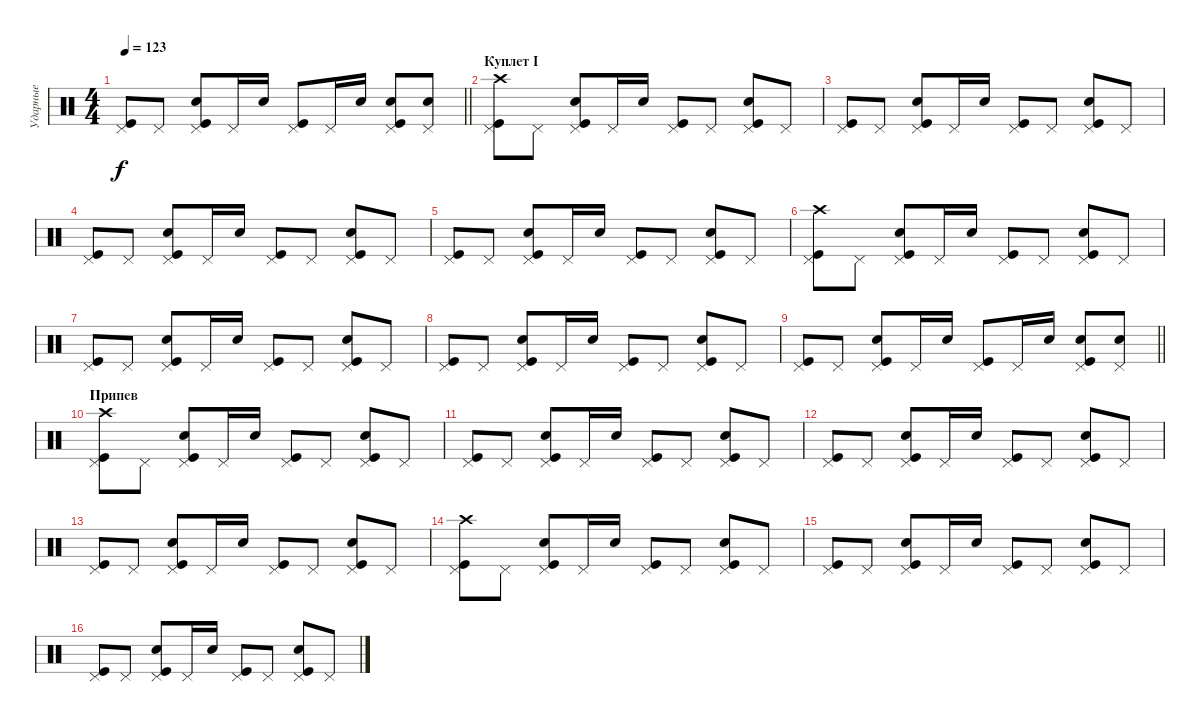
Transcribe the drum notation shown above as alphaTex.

\track ("Ударные" "Ударные") {instrument percussion}
\staff {score}
\articulation defaults
\ts (4 4)
\tempo 123
\clef neutral
\barLineRight lightlight
\ks c
("Kick (hit)" "Pedal Hi-Hat (hit)").8{dy f} "Pedal Hi-Hat (hit)".8 ("Kick (hit)" "Pedal Hi-Hat (hit)" "Snare (hit) 2").8 "Pedal Hi-Hat (hit)".16 "Snare (hit) 2".16 ("Kick (hit)" "Pedal Hi-Hat (hit)").8 "Pedal Hi-Hat (hit)".16 "Snare (hit) 2".16 ("Kick (hit)" "Pedal Hi-Hat (hit)" "Snare (hit) 2").8 ("Pedal Hi-Hat (hit)" "Snare (hit) 2").8 |
\section ("" "Куплет I")
("Kick (hit)" "Pedal Hi-Hat (hit)" "Crash high (hit)").8 "Pedal Hi-Hat (hit)".8 ("Kick (hit)" "Pedal Hi-Hat (hit)" "Snare (hit) 2").8 "Pedal Hi-Hat (hit)".16 "Snare (hit) 2".16 ("Kick (hit)" "Pedal Hi-Hat (hit)").8 "Pedal Hi-Hat (hit)".8 ("Kick (hit)" "Pedal Hi-Hat (hit)" "Snare (hit) 2").8 "Pedal Hi-Hat (hit)".8 |
("Kick (hit)" "Pedal Hi-Hat (hit)").8 "Pedal Hi-Hat (hit)".8 ("Kick (hit)" "Pedal Hi-Hat (hit)" "Snare (hit) 2").8 "Pedal Hi-Hat (hit)".16 "Snare (hit) 2".16 ("Kick (hit)" "Pedal Hi-Hat (hit)").8 "Pedal Hi-Hat (hit)".8 ("Kick (hit)" "Pedal Hi-Hat (hit)" "Snare (hit) 2").8 "Pedal Hi-Hat (hit)".8 |
("Kick (hit)" "Pedal Hi-Hat (hit)").8 "Pedal Hi-Hat (hit)".8 ("Kick (hit)" "Pedal Hi-Hat (hit)" "Snare (hit) 2").8 "Pedal Hi-Hat (hit)".16 "Snare (hit) 2".16 ("Kick (hit)" "Pedal Hi-Hat (hit)").8 "Pedal Hi-Hat (hit)".8 ("Kick (hit)" "Pedal Hi-Hat (hit)" "Snare (hit) 2").8 "Pedal Hi-Hat (hit)".8 |
("Kick (hit)" "Pedal Hi-Hat (hit)").8 "Pedal Hi-Hat (hit)".8 ("Kick (hit)" "Pedal Hi-Hat (hit)" "Snare (hit) 2").8 "Pedal Hi-Hat (hit)".16 "Snare (hit) 2".16 ("Kick (hit)" "Pedal Hi-Hat (hit)").8 "Pedal Hi-Hat (hit)".8 ("Kick (hit)" "Pedal Hi-Hat (hit)" "Snare (hit) 2").8 "Pedal Hi-Hat (hit)".8 |
("Kick (hit)" "Pedal Hi-Hat (hit)" "Crash high (hit)").8 "Pedal Hi-Hat (hit)".8 ("Kick (hit)" "Pedal Hi-Hat (hit)" "Snare (hit) 2").8 "Pedal Hi-Hat (hit)".16 "Snare (hit) 2".16 ("Kick (hit)" "Pedal Hi-Hat (hit)").8 "Pedal Hi-Hat (hit)".8 ("Kick (hit)" "Pedal Hi-Hat (hit)" "Snare (hit) 2").8 "Pedal Hi-Hat (hit)".8 |
("Kick (hit)" "Pedal Hi-Hat (hit)").8 "Pedal Hi-Hat (hit)".8 ("Kick (hit)" "Pedal Hi-Hat (hit)" "Snare (hit) 2").8 "Pedal Hi-Hat (hit)".16 "Snare (hit) 2".16 ("Kick (hit)" "Pedal Hi-Hat (hit)").8 "Pedal Hi-Hat (hit)".8 ("Kick (hit)" "Pedal Hi-Hat (hit)" "Snare (hit) 2").8 "Pedal Hi-Hat (hit)".8 |
("Kick (hit)" "Pedal Hi-Hat (hit)").8 "Pedal Hi-Hat (hit)".8 ("Kick (hit)" "Pedal Hi-Hat (hit)" "Snare (hit) 2").8 "Pedal Hi-Hat (hit)".16 "Snare (hit) 2".16 ("Kick (hit)" "Pedal Hi-Hat (hit)").8 "Pedal Hi-Hat (hit)".8 ("Kick (hit)" "Pedal Hi-Hat (hit)" "Snare (hit) 2").8 "Pedal Hi-Hat (hit)".8 |
\barLineRight lightlight
("Kick (hit)" "Pedal Hi-Hat (hit)").8 "Pedal Hi-Hat (hit)".8 ("Kick (hit)" "Pedal Hi-Hat (hit)" "Snare (hit) 2").8 "Pedal Hi-Hat (hit)".16 "Snare (hit) 2".16 ("Kick (hit)" "Pedal Hi-Hat (hit)").8 "Pedal Hi-Hat (hit)".16 "Snare (hit) 2".16 ("Kick (hit)" "Pedal Hi-Hat (hit)" "Snare (hit) 2").8 ("Pedal Hi-Hat (hit)" "Snare (hit) 2").8 |
\section ("" "Припев")
("Kick (hit)" "Pedal Hi-Hat (hit)" "Crash high (hit)").8 "Pedal Hi-Hat (hit)".8 ("Kick (hit)" "Pedal Hi-Hat (hit)" "Snare (hit) 2").8 "Pedal Hi-Hat (hit)".16 "Snare (hit) 2".16 ("Kick (hit)" "Pedal Hi-Hat (hit)").8 "Pedal Hi-Hat (hit)".8 ("Kick (hit)" "Pedal Hi-Hat (hit)" "Snare (hit) 2").8 "Pedal Hi-Hat (hit)".8 |
("Kick (hit)" "Pedal Hi-Hat (hit)").8 "Pedal Hi-Hat (hit)".8 ("Kick (hit)" "Pedal Hi-Hat (hit)" "Snare (hit) 2").8 "Pedal Hi-Hat (hit)".16 "Snare (hit) 2".16 ("Kick (hit)" "Pedal Hi-Hat (hit)").8 "Pedal Hi-Hat (hit)".8 ("Kick (hit)" "Pedal Hi-Hat (hit)" "Snare (hit) 2").8 "Pedal Hi-Hat (hit)".8 |
("Kick (hit)" "Pedal Hi-Hat (hit)").8 "Pedal Hi-Hat (hit)".8 ("Kick (hit)" "Pedal Hi-Hat (hit)" "Snare (hit) 2").8 "Pedal Hi-Hat (hit)".16 "Snare (hit) 2".16 ("Kick (hit)" "Pedal Hi-Hat (hit)").8 "Pedal Hi-Hat (hit)".8 ("Kick (hit)" "Pedal Hi-Hat (hit)" "Snare (hit) 2").8 "Pedal Hi-Hat (hit)".8 |
("Kick (hit)" "Pedal Hi-Hat (hit)").8 "Pedal Hi-Hat (hit)".8 ("Kick (hit)" "Pedal Hi-Hat (hit)" "Snare (hit) 2").8 "Pedal Hi-Hat (hit)".16 "Snare (hit) 2".16 ("Kick (hit)" "Pedal Hi-Hat (hit)").8 "Pedal Hi-Hat (hit)".8 ("Kick (hit)" "Pedal Hi-Hat (hit)" "Snare (hit) 2").8 "Pedal Hi-Hat (hit)".8 |
("Kick (hit)" "Pedal Hi-Hat (hit)" "Crash high (hit)").8 "Pedal Hi-Hat (hit)".8 ("Kick (hit)" "Pedal Hi-Hat (hit)" "Snare (hit) 2").8 "Pedal Hi-Hat (hit)".16 "Snare (hit) 2".16 ("Kick (hit)" "Pedal Hi-Hat (hit)").8 "Pedal Hi-Hat (hit)".8 ("Kick (hit)" "Pedal Hi-Hat (hit)" "Snare (hit) 2").8 "Pedal Hi-Hat (hit)".8 |
("Kick (hit)" "Pedal Hi-Hat (hit)").8 "Pedal Hi-Hat (hit)".8 ("Kick (hit)" "Pedal Hi-Hat (hit)" "Snare (hit) 2").8 "Pedal Hi-Hat (hit)".16 "Snare (hit) 2".16 ("Kick (hit)" "Pedal Hi-Hat (hit)").8 "Pedal Hi-Hat (hit)".8 ("Kick (hit)" "Pedal Hi-Hat (hit)" "Snare (hit) 2").8 "Pedal Hi-Hat (hit)".8 |
("Kick (hit)" "Pedal Hi-Hat (hit)").8 "Pedal Hi-Hat (hit)".8 ("Kick (hit)" "Pedal Hi-Hat (hit)" "Snare (hit) 2").8 "Pedal Hi-Hat (hit)".16 "Snare (hit) 2".16 ("Kick (hit)" "Pedal Hi-Hat (hit)").8 "Pedal Hi-Hat (hit)".8 ("Kick (hit)" "Pedal Hi-Hat (hit)" "Snare (hit) 2").8 "Pedal Hi-Hat (hit)".8
